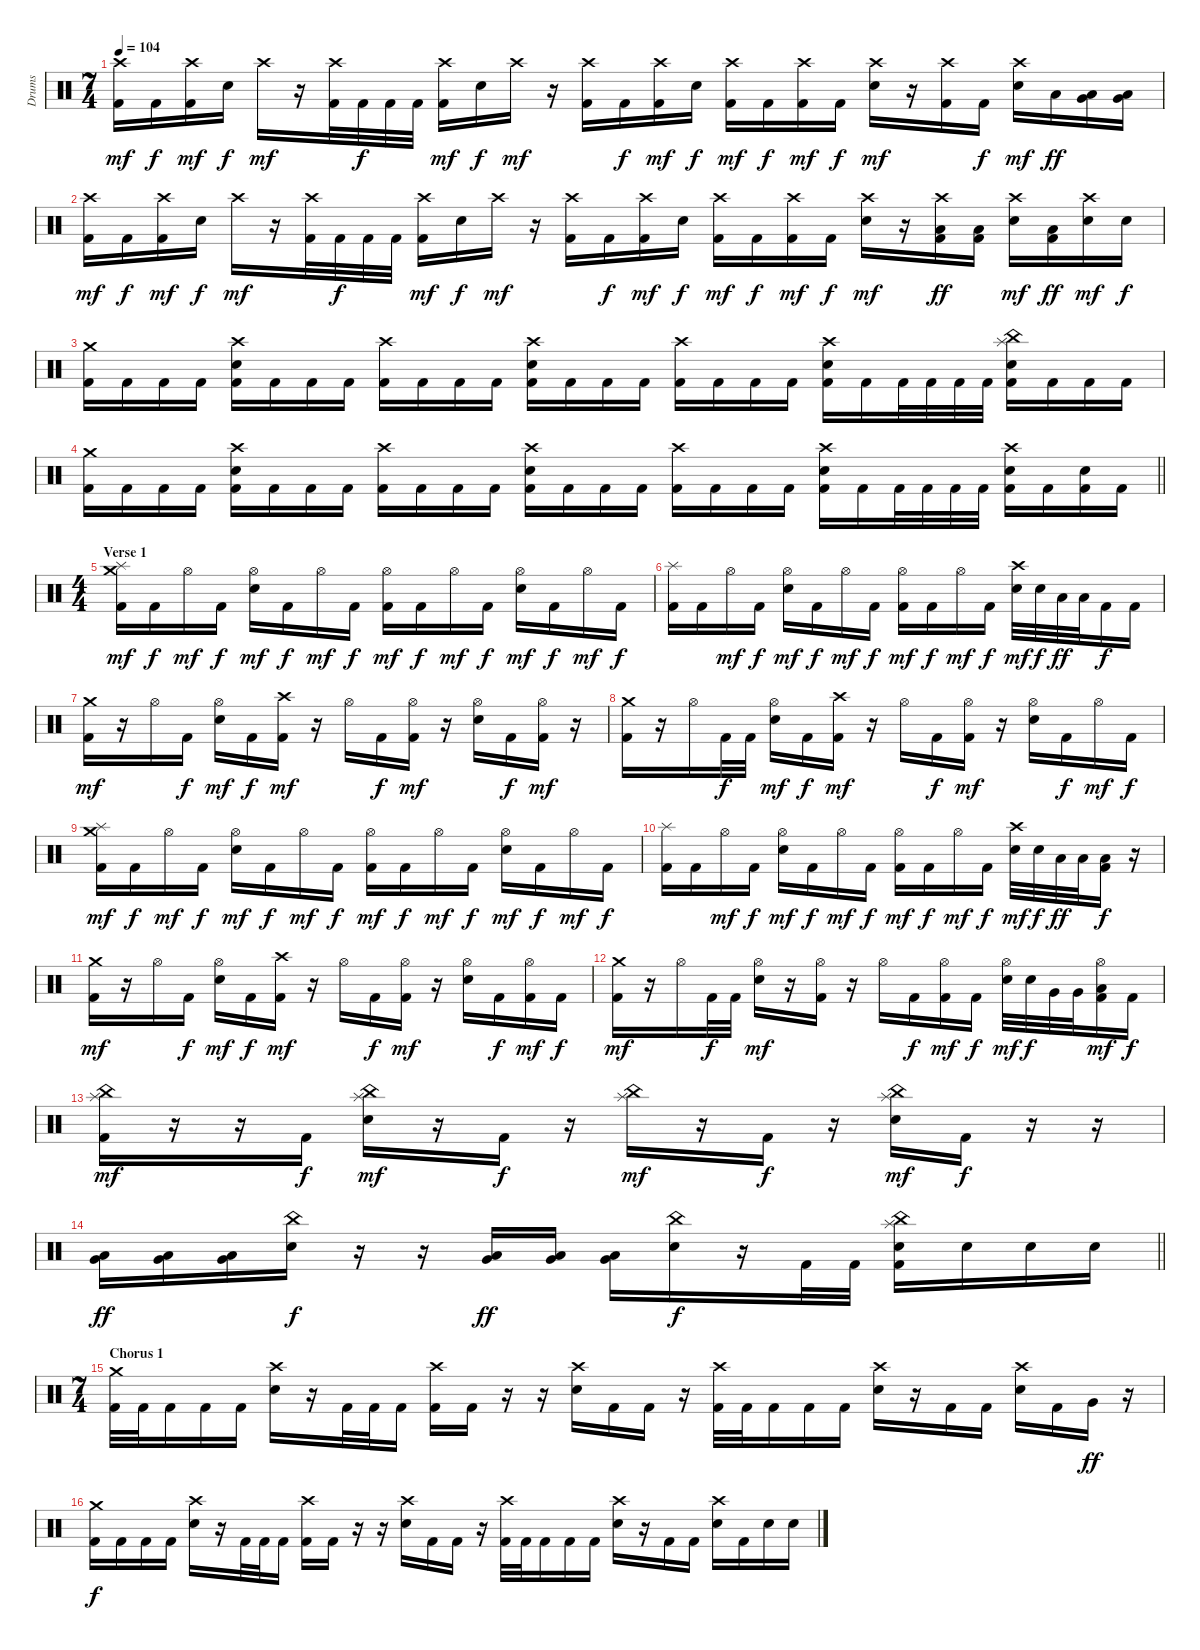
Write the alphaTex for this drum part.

\track ("Drums" "Drums") {instrument percussion}
\staff {score}
\articulation defaults
\ts (7 4)
\tempo 104
\clef neutral
\ks c
("Crash high (hit)" "Kick (hit) 2").16{dy mf} "Kick (hit) 2".16{dy f} ("Crash high (hit)" "Kick (hit) 2").16{dy mf} "Snare (hit) 2".16{dy f} "Crash high (hit)".16{dy mf} r.16 ("Crash high (hit)" "Kick (hit) 2").32 "Kick (hit) 2".32{dy f} "Kick (hit) 2".32 "Kick (hit) 2".32 ("Crash high (hit)" "Kick (hit) 2").16{dy mf} "Snare (hit) 2".16{dy f} "Crash high (hit)".16{dy mf} r.16 ("Crash high (hit)" "Kick (hit) 2").16 "Kick (hit) 2".16{dy f} ("Crash high (hit)" "Kick (hit) 2").16{dy mf} "Snare (hit) 2".16{dy f} ("Crash high (hit)" "Kick (hit) 2").16{dy mf} "Kick (hit) 2".16{dy f} ("Crash high (hit)" "Kick (hit) 2").16{dy mf} "Kick (hit) 2".16{dy f} ("Crash high (hit)" "Snare (hit) 2").16{dy mf} r.16 ("Crash high (hit)" "Kick (hit) 2").16 "Kick (hit) 2".16{dy f} ("Crash high (hit)" "Snare (hit) 2").16{dy mf} "Low Tom (hit)".16{dy ff} ("Very Low Tom (hit)" "Low Floor Tom (hit)").16 ("Very Low Tom (hit)" "Low Floor Tom (hit)").16 |
("Crash high (hit)" "Kick (hit) 2").16{dy mf} "Kick (hit) 2".16{dy f} ("Crash high (hit)" "Kick (hit) 2").16{dy mf} "Snare (hit) 2".16{dy f} "Crash high (hit)".16{dy mf} r.16 ("Crash high (hit)" "Kick (hit) 2").32 "Kick (hit) 2".32{dy f} "Kick (hit) 2".32 "Kick (hit) 2".32 ("Crash high (hit)" "Kick (hit) 2").16{dy mf} "Snare (hit) 2".16{dy f} "Crash high (hit)".16{dy mf} r.16 ("Crash high (hit)" "Kick (hit) 2").16 "Kick (hit) 2".16{dy f} ("Crash high (hit)" "Kick (hit) 2").16{dy mf} "Snare (hit) 2".16{dy f} ("Crash high (hit)" "Kick (hit) 2").16{dy mf} "Kick (hit) 2".16{dy f} ("Crash high (hit)" "Kick (hit) 2").16{dy mf} "Kick (hit) 2".16{dy f} ("Crash high (hit)" "Snare (hit) 2").16{dy mf} r.16 ("Crash high (hit)" "Low Floor Tom (hit)" "Kick (hit) 2").16{dy ff} ("Low Floor Tom (hit)" "Kick (hit) 2").16 ("Crash high (hit)" "Snare (hit) 2").16{dy mf} ("Low Floor Tom (hit)" "Kick (hit) 2").16{dy ff} ("Crash high (hit)" "Snare (hit) 2").16{dy mf} "Snare (hit) 2".16{dy f} |
("Crash medium (hit)" "Kick (hit) 2").16 "Kick (hit) 2".16 "Kick (hit) 2".16 "Kick (hit) 2".16 ("Crash high (hit)" "Snare (hit) 2" "Kick (hit) 2").16 "Kick (hit) 2".16 "Kick (hit) 2".16 "Kick (hit) 2".16 ("Crash high (hit)" "Kick (hit) 2").16 "Kick (hit) 2".16 "Kick (hit) 2".16 "Kick (hit) 2".16 ("Crash high (hit)" "Snare (hit) 2" "Kick (hit) 2").16 "Kick (hit) 2".16 "Kick (hit) 2".16 "Kick (hit) 2".16 ("Crash high (hit)" "Kick (hit) 2").16 "Kick (hit) 2".16 "Kick (hit) 2".16 "Kick (hit) 2".16 ("Crash high (hit)" "Snare (hit) 2" "Kick (hit) 2").16 "Kick (hit) 2".16 "Kick (hit) 2".32 "Kick (hit) 2".32 "Kick (hit) 2".32 "Kick (hit) 2".32 ("China (hit)" "Splash (hit)" "Snare (hit) 2" "Kick (hit) 2").16 "Kick (hit) 2".16 "Kick (hit) 2".16 "Kick (hit) 2".16 |
\barLineRight lightlight
("Crash medium (hit)" "Kick (hit) 2").16 "Kick (hit) 2".16 "Kick (hit) 2".16 "Kick (hit) 2".16 ("Crash high (hit)" "Snare (hit) 2" "Kick (hit) 2").16 "Kick (hit) 2".16 "Kick (hit) 2".16 "Kick (hit) 2".16 ("Crash high (hit)" "Kick (hit) 2").16 "Kick (hit) 2".16 "Kick (hit) 2".16 "Kick (hit) 2".16 ("Crash high (hit)" "Snare (hit) 2" "Kick (hit) 2").16 "Kick (hit) 2".16 "Kick (hit) 2".16 "Kick (hit) 2".16 ("Crash high (hit)" "Kick (hit) 2").16 "Kick (hit) 2".16 "Kick (hit) 2".16 "Kick (hit) 2".16 ("Crash high (hit)" "Snare (hit) 2" "Kick (hit) 2").16 "Kick (hit) 2".16 "Kick (hit) 2".32 "Kick (hit) 2".32 "Kick (hit) 2".32 "Kick (hit) 2".32 ("Crash high (hit)" "Snare (hit) 2" "Kick (hit) 2").16 "Kick (hit) 2".16 ("Snare (hit) 2" "Kick (hit) 2").16 "Kick (hit) 2".16 |
\ts (4 4)
\section ("" "Verse 1")
("Crash medium (hit)" "Splash (hit)" "Kick (hit) 2").16{dy mf} "Kick (hit) 2".16{dy f} "Hi-Hat (open)".16{dy mf} "Kick (hit) 2".16{dy f} ("Hi-Hat (open)" "Snare (hit) 2").16{dy mf} "Kick (hit) 2".16{dy f} "Hi-Hat (open)".16{dy mf} "Kick (hit) 2".16{dy f} ("Hi-Hat (open)" "Kick (hit) 2").16{dy mf} "Kick (hit) 2".16{dy f} "Hi-Hat (open)".16{dy mf} "Kick (hit) 2".16{dy f} ("Hi-Hat (open)" "Snare (hit) 2").16{dy mf} "Kick (hit) 2".16{dy f} "Hi-Hat (open)".16{dy mf} "Kick (hit) 2".16{dy f} |
("Splash (hit)" "Kick (hit) 2").16 "Kick (hit) 2".16 "Hi-Hat (open)".16{dy mf} "Kick (hit) 2".16{dy f} ("Hi-Hat (open)" "Snare (hit) 2").16{dy mf} "Kick (hit) 2".16{dy f} "Hi-Hat (open)".16{dy mf} "Kick (hit) 2".16{dy f} ("Hi-Hat (open)" "Kick (hit) 2").16{dy mf} "Kick (hit) 2".16{dy f} "Hi-Hat (open)".16{dy mf} "Kick (hit) 2".16{dy f} ("Crash high (hit)" "Snare (hit) 2").32{dy mf} "Snare (hit) 2".32{dy f} "Low Tom (hit)".32{dy ff} "Low Tom (hit)".32 "Kick (hit) 2".16{dy f} "Kick (hit) 2".16 |
("Crash medium (hit)" "Kick (hit) 2").16{dy mf} r.16 "Hi-Hat (open)".16 "Kick (hit) 2".16{dy f} ("Hi-Hat (open)" "Snare (hit) 2").16{dy mf} "Kick (hit) 2".16{dy f} ("Crash high (hit)" "Kick (hit) 2").16{dy mf} r.16 "Hi-Hat (open)".16 "Kick (hit) 2".16{dy f} ("Hi-Hat (open)" "Kick (hit) 2").16{dy mf} r.16 ("Hi-Hat (open)" "Snare (hit) 2").16 "Kick (hit) 2".16{dy f} ("Hi-Hat (open)" "Kick (hit) 2").16{dy mf} r.16 |
("Crash medium (hit)" "Kick (hit) 2").16 r.16 "Hi-Hat (open)".16 "Kick (hit) 2".32{dy f} "Kick (hit) 2".32 ("Hi-Hat (open)" "Snare (hit) 2").16{dy mf} "Kick (hit) 2".16{dy f} ("Crash high (hit)" "Kick (hit) 2").16{dy mf} r.16 "Hi-Hat (open)".16 "Kick (hit) 2".16{dy f} ("Hi-Hat (open)" "Kick (hit) 2").16{dy mf} r.16 ("Hi-Hat (open)" "Snare (hit) 2").16 "Kick (hit) 2".16{dy f} "Hi-Hat (open)".16{dy mf} "Kick (hit) 2".16{dy f} |
("Crash medium (hit)" "Splash (hit)" "Kick (hit) 2").16{dy mf} "Kick (hit) 2".16{dy f} "Hi-Hat (open)".16{dy mf} "Kick (hit) 2".16{dy f} ("Hi-Hat (open)" "Snare (hit) 2").16{dy mf} "Kick (hit) 2".16{dy f} "Hi-Hat (open)".16{dy mf} "Kick (hit) 2".16{dy f} ("Hi-Hat (open)" "Kick (hit) 2").16{dy mf} "Kick (hit) 2".16{dy f} "Hi-Hat (open)".16{dy mf} "Kick (hit) 2".16{dy f} ("Hi-Hat (open)" "Snare (hit) 2").16{dy mf} "Kick (hit) 2".16{dy f} "Hi-Hat (open)".16{dy mf} "Kick (hit) 2".16{dy f} |
("Splash (hit)" "Kick (hit) 2").16 "Kick (hit) 2".16 "Hi-Hat (open)".16{dy mf} "Kick (hit) 2".16{dy f} ("Hi-Hat (open)" "Snare (hit) 2").16{dy mf} "Kick (hit) 2".16{dy f} "Hi-Hat (open)".16{dy mf} "Kick (hit) 2".16{dy f} ("Hi-Hat (open)" "Kick (hit) 2").16{dy mf} "Kick (hit) 2".16{dy f} "Hi-Hat (open)".16{dy mf} "Kick (hit) 2".16{dy f} ("Crash high (hit)" "Snare (hit) 2").32{dy mf} "Snare (hit) 2".32{dy f} "Low Tom (hit)".32{dy ff} "Low Tom (hit)".32 ("Low Floor Tom (hit)" "Kick (hit) 2").16{dy f} r.16 |
("Crash medium (hit)" "Kick (hit) 2").16{dy mf} r.16 "Hi-Hat (open)".16 "Kick (hit) 2".16{dy f} ("Hi-Hat (open)" "Snare (hit) 2").16{dy mf} "Kick (hit) 2".16{dy f} ("Crash high (hit)" "Kick (hit) 2").16{dy mf} r.16 "Hi-Hat (open)".16 "Kick (hit) 2".16{dy f} ("Hi-Hat (open)" "Kick (hit) 2").16{dy mf} r.16 ("Hi-Hat (open)" "Snare (hit) 2").16 "Kick (hit) 2".16{dy f} ("Hi-Hat (open)" "Kick (hit) 2").16{dy mf} "Kick (hit) 2".16{dy f} |
("Crash medium (hit)" "Kick (hit) 2").16{dy mf} r.16 "Hi-Hat (open)".16 "Kick (hit) 2".32{dy f} "Kick (hit) 2".32 ("Hi-Hat (open)" "Snare (hit) 2").16{dy mf} r.16 ("Hi-Hat (open)" "Kick (hit) 2").16 r.16 "Hi-Hat (open)".16 "Kick (hit) 2".16{dy f} ("Hi-Hat (open)" "Kick (hit) 2").16{dy mf} "Kick (hit) 2".16{dy f} ("Hi-Hat (open)" "Snare (hit) 2").32{dy mf} "Snare (hit) 2".32{dy f} "Very Low Tom (hit)".32 "Very Low Tom (hit)".32 ("Hi-Hat (open)" "Low Floor Tom (hit)" "Kick (hit) 2").16{dy mf} "Kick (hit) 2".16{dy f} |
("China (hit)" "Splash (hit)" "Kick (hit) 2").16{dy mf} r.16 r.16 "Kick (hit) 2".16{dy f} ("China (hit)" "Splash (hit)" "Snare (hit) 2").16{dy mf} r.16 "Kick (hit) 2".16{dy f} r.16 ("China (hit)" "Splash (hit)").16{dy mf} r.16 "Kick (hit) 2".16{dy f} r.16 ("China (hit)" "Splash (hit)" "Snare (hit) 2").16{dy mf} "Kick (hit) 2".16{dy f} r.16 r.16 |
\barLineRight lightlight
("Very Low Tom (hit)" "Low Floor Tom (hit)").16{dy ff} ("Very Low Tom (hit)" "Low Floor Tom (hit)").16 ("Very Low Tom (hit)" "Low Floor Tom (hit)").16 ("China (hit)" "Snare (hit) 2").16{dy f} r.16 r.16 ("Very Low Tom (hit)" "Low Floor Tom (hit)").16{dy ff} ("Very Low Tom (hit)" "Low Floor Tom (hit)").16 ("Very Low Tom (hit)" "Low Floor Tom (hit)").16 ("China (hit)" "Snare (hit) 2").16{dy f} r.16 "Kick (hit) 2".32 "Kick (hit) 2".32 ("China (hit)" "Splash (hit)" "Snare (hit) 2" "Kick (hit) 2").16 "Snare (hit) 2".16 "Snare (hit) 2".16 "Snare (hit) 2".16 |
\ts (7 4)
\section ("" "Chorus 1")
("Crash medium (hit)" "Kick (hit) 2").32 "Kick (hit) 2".32 "Kick (hit) 2".16 "Kick (hit) 2".16 "Kick (hit) 2".16 ("Crash high (hit)" "Snare (hit) 2").16 r.16 "Kick (hit) 2".32 "Kick (hit) 2".32 "Kick (hit) 2".16 ("Crash high (hit)" "Kick (hit) 2").16 "Kick (hit) 2".16 r.16 r.16 ("Crash high (hit)" "Snare (hit) 2").16 "Kick (hit) 2".16 "Kick (hit) 2".16 r.16 ("Crash high (hit)" "Kick (hit) 2").32 "Kick (hit) 2".32 "Kick (hit) 2".16 "Kick (hit) 2".16 "Kick (hit) 2".16 ("Crash high (hit)" "Snare (hit) 2").16 r.16 "Kick (hit) 2".16 "Kick (hit) 2".16 ("Crash high (hit)" "Snare (hit) 2").16 "Kick (hit) 2".16 "Very Low Tom (hit)".16{dy ff} r.16 |
("Crash medium (hit)" "Kick (hit) 2").16{dy f} "Kick (hit) 2".16 "Kick (hit) 2".16 "Kick (hit) 2".16 ("Crash high (hit)" "Snare (hit) 2").16 r.16 "Kick (hit) 2".32 "Kick (hit) 2".32 "Kick (hit) 2".16 ("Crash high (hit)" "Kick (hit) 2").16 "Kick (hit) 2".16 r.16 r.16 ("Crash high (hit)" "Snare (hit) 2").16 "Kick (hit) 2".16 "Kick (hit) 2".16 r.16 ("Crash high (hit)" "Kick (hit) 2").32 "Kick (hit) 2".32 "Kick (hit) 2".16 "Kick (hit) 2".16 "Kick (hit) 2".16 ("Crash high (hit)" "Snare (hit) 2").16 r.16 "Kick (hit) 2".16 "Kick (hit) 2".16 ("Crash high (hit)" "Snare (hit) 2").16 "Kick (hit) 2".16 "Snare (hit) 2".16 "Snare (hit) 2".16
